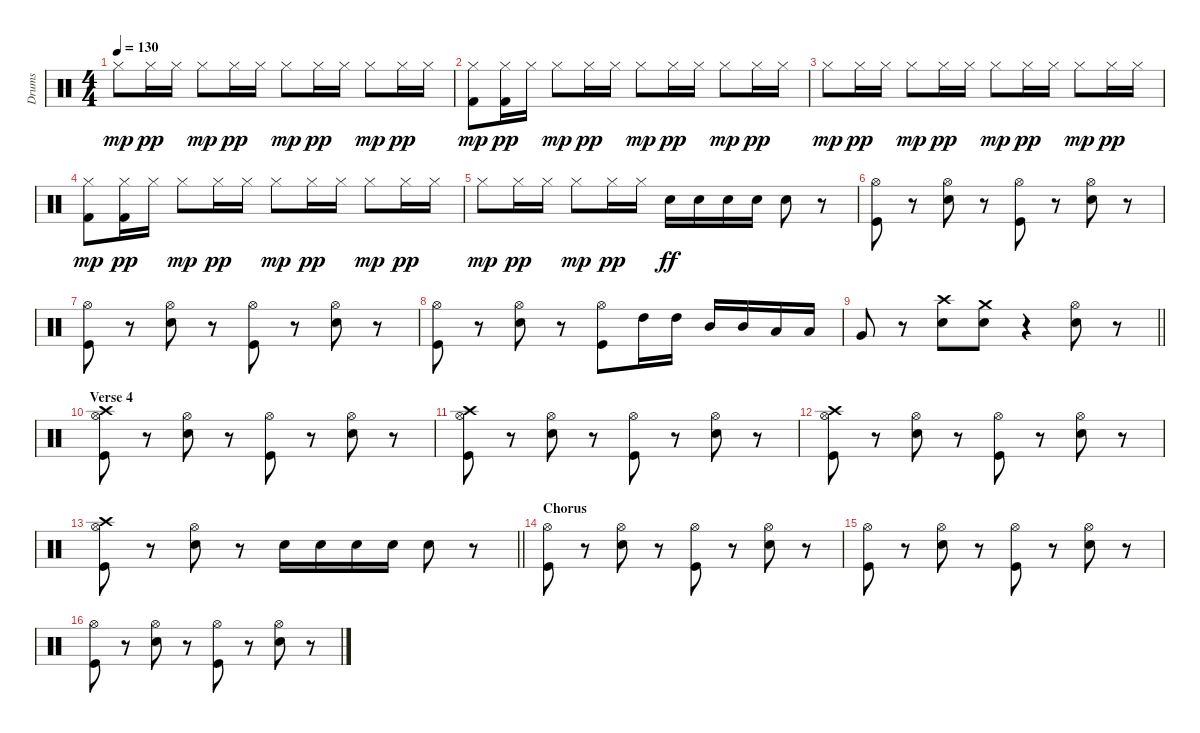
\track ("Drums" "Drums") {instrument percussion}
\staff {score}
\articulation defaults
\ts (4 4)
\tempo 130
\clef neutral
\ks c "Hi-Hat (closed)".8{dy mp} "Hi-Hat (closed)".16{dy pp} "Hi-Hat (closed)".16 "Hi-Hat (closed)".8{dy mp} "Hi-Hat (closed)".16{dy pp} "Hi-Hat (closed)".16 "Hi-Hat (closed)".8{dy mp} "Hi-Hat (closed)".16{dy pp} "Hi-Hat (closed)".16 "Hi-Hat (closed)".8{dy mp} "Hi-Hat (closed)".16{dy pp} "Hi-Hat (closed)".16
|
("Hi-Hat (closed)" "Kick (hit) 2").8{dy mp} ("Hi-Hat (closed)" "Kick (hit) 2").16{dy pp} "Hi-Hat (closed)".16 "Hi-Hat (closed)".8{dy mp} "Hi-Hat (closed)".16{dy pp} "Hi-Hat (closed)".16 "Hi-Hat (closed)".8{dy mp} "Hi-Hat (closed)".16{dy pp} "Hi-Hat (closed)".16 "Hi-Hat (closed)".8{dy mp} "Hi-Hat (closed)".16{dy pp} "Hi-Hat (closed)".16 |
"Hi-Hat (closed)".8{dy mp} "Hi-Hat (closed)".16{dy pp} "Hi-Hat (closed)".16 "Hi-Hat (closed)".8{dy mp} "Hi-Hat (closed)".16{dy pp} "Hi-Hat (closed)".16 "Hi-Hat (closed)".8{dy mp} "Hi-Hat (closed)".16{dy pp} "Hi-Hat (closed)".16 "Hi-Hat (closed)".8{dy mp} "Hi-Hat (closed)".16{dy pp} "Hi-Hat (closed)".16 |
("Hi-Hat (closed)" "Kick (hit) 2").8{dy mp} ("Hi-Hat (closed)" "Kick (hit) 2").16{dy pp} "Hi-Hat (closed)".16 "Hi-Hat (closed)".8{dy mp} "Hi-Hat (closed)".16{dy pp} "Hi-Hat (closed)".16 "Hi-Hat (closed)".8{dy mp} "Hi-Hat (closed)".16{dy pp} "Hi-Hat (closed)".16 "Hi-Hat (closed)".8{dy mp} "Hi-Hat (closed)".16{dy pp} "Hi-Hat (closed)".16 |
"Hi-Hat (closed)".8{dy mp} "Hi-Hat (closed)".16{dy pp} "Hi-Hat (closed)".16 "Hi-Hat (closed)".8{dy mp} "Hi-Hat (closed)".16{dy pp} "Hi-Hat (closed)".16 "Electric Snare (hit)".16{dy ff} "Electric Snare (hit)".16 "Electric Snare (hit)".16 "Electric Snare (hit)".16 "Electric Snare (hit)".8 r.8 |
("Hi-Hat (open)" "Kick (hit)").8 r.8 ("Hi-Hat (open)" "Electric Snare (hit)").8 r.8 ("Hi-Hat (open)" "Kick (hit)").8 r.8 ("Hi-Hat (open)" "Electric Snare (hit)").8 r.8 |
("Hi-Hat (open)" "Kick (hit)").8 r.8 ("Hi-Hat (open)" "Electric Snare (hit)").8 r.8 ("Hi-Hat (open)" "Kick (hit)").8 r.8 ("Hi-Hat (open)" "Electric Snare (hit)").8 r.8 |
("Hi-Hat (open)" "Kick (hit)").8 r.8 ("Hi-Hat (open)" "Electric Snare (hit)").8 r.8 ("Hi-Hat (open)" "Kick (hit)").8 "High Tom (hit)".16 "High Tom (hit)".16 "Mid Tom (hit)".16 "Mid Tom (hit)".16 "Low Tom (hit)".16 "Low Tom (hit)".16 |
\barLineRight lightlight "Very Low Tom (hit)".8
r.8 ("Crash high (hit)" "Electric Snare (hit)").8 ("Crash medium (hit)" "Electric Snare (hit)").8 r.4 ("Hi-Hat (open)" "Electric Snare (hit)").8 r.8 |
\section ("" "Verse 4")
("Crash high (hit)" "Hi-Hat (open)" "Kick (hit)").8 r.8 ("Hi-Hat (open)" "Electric Snare (hit)").8 r.8 ("Hi-Hat (open)" "Kick (hit)").8 r.8 ("Hi-Hat (open)" "Electric Snare (hit)").8 r.8 |
("Crash high (hit)" "Hi-Hat (open)" "Kick (hit)").8 r.8 ("Hi-Hat (open)" "Electric Snare (hit)").8 r.8 ("Hi-Hat (open)" "Kick (hit)").8 r.8 ("Hi-Hat (open)" "Electric Snare (hit)").8 r.8 |
("Crash high (hit)" "Hi-Hat (open)" "Kick (hit)").8 r.8 ("Hi-Hat (open)" "Electric Snare (hit)").8 r.8 ("Hi-Hat (open)" "Kick (hit)").8 r.8 ("Hi-Hat (open)" "Electric Snare (hit)").8 r.8 |
\barLineRight lightlight
("Crash high (hit)" "Hi-Hat (open)" "Kick (hit)").8 r.8 ("Hi-Hat (open)" "Electric Snare (hit)").8 r.8 "Electric Snare (hit)".16 "Electric Snare (hit)".16 "Electric Snare (hit)".16 "Electric Snare (hit)".16 "Electric Snare (hit)".8 r.8 |
\section ("" "Chorus")
("Hi-Hat (open)" "Kick (hit)").8 r.8 ("Hi-Hat (open)" "Electric Snare (hit)").8 r.8 ("Hi-Hat (open)" "Kick (hit)").8 r.8 ("Hi-Hat (open)" "Electric Snare (hit)").8 r.8 |
("Hi-Hat (open)" "Kick (hit)").8 r.8 ("Hi-Hat (open)" "Electric Snare (hit)").8 r.8 ("Hi-Hat (open)" "Kick (hit)").8 r.8 ("Hi-Hat (open)" "Electric Snare (hit)").8 r.8 |
("Hi-Hat (open)" "Kick (hit)").8 r.8 ("Hi-Hat (open)" "Electric Snare (hit)").8 r.8 ("Hi-Hat (open)" "Kick (hit)").8 r.8 ("Hi-Hat (open)" "Electric Snare (hit)").8 r.8
